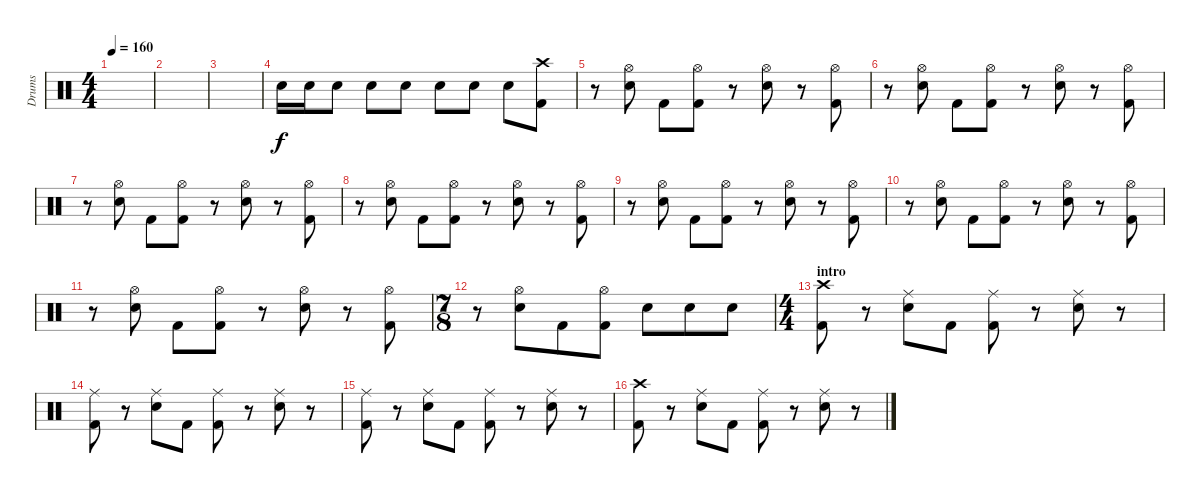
\track ("Drums" "Drums") {instrument percussion}
\staff {score}
\articulation defaults
\ts (4 4)
\tempo 160
\clef neutral
\ks c
|
|
|
"Snare (hit) 2".16 "Snare (hit) 2".16 "Snare (hit) 2".8 "Snare (hit) 2".8 "Snare (hit) 2".8 "Snare (hit) 2".8 "Snare (hit) 2".8 "Snare (hit) 2".8 ("Kick (hit) 2" "Crash high (hit)").8 |
r.8 ("Snare (hit) 2" "Hi-Hat (open)").8 "Kick (hit) 2".8 ("Kick (hit) 2" "Hi-Hat (open)").8 r.8 ("Snare (hit) 2" "Hi-Hat (open)").8 r.8 ("Kick (hit) 2" "Hi-Hat (open)").8 |
r.8 ("Snare (hit) 2" "Hi-Hat (open)").8 "Kick (hit) 2".8 ("Kick (hit) 2" "Hi-Hat (open)").8 r.8 ("Snare (hit) 2" "Hi-Hat (open)").8 r.8 ("Kick (hit) 2" "Hi-Hat (open)").8 |
r.8 ("Snare (hit) 2" "Hi-Hat (open)").8 "Kick (hit) 2".8 ("Kick (hit) 2" "Hi-Hat (open)").8 r.8 ("Snare (hit) 2" "Hi-Hat (open)").8 r.8 ("Kick (hit) 2" "Hi-Hat (open)").8 |
r.8 ("Snare (hit) 2" "Hi-Hat (open)").8 "Kick (hit) 2".8 ("Kick (hit) 2" "Hi-Hat (open)").8 r.8 ("Snare (hit) 2" "Hi-Hat (open)").8 r.8 ("Kick (hit) 2" "Hi-Hat (open)").8 |
r.8 ("Snare (hit) 2" "Hi-Hat (open)").8 "Kick (hit) 2".8 ("Kick (hit) 2" "Hi-Hat (open)").8 r.8 ("Snare (hit) 2" "Hi-Hat (open)").8 r.8 ("Kick (hit) 2" "Hi-Hat (open)").8 |
r.8 ("Snare (hit) 2" "Hi-Hat (open)").8 "Kick (hit) 2".8 ("Kick (hit) 2" "Hi-Hat (open)").8 r.8 ("Snare (hit) 2" "Hi-Hat (open)").8 r.8 ("Kick (hit) 2" "Hi-Hat (open)").8 |
r.8 ("Snare (hit) 2" "Hi-Hat (open)").8 "Kick (hit) 2".8 ("Kick (hit) 2" "Hi-Hat (open)").8 r.8 ("Snare (hit) 2" "Hi-Hat (open)").8 r.8 ("Kick (hit) 2" "Hi-Hat (open)").8 |
\ts (7 8)
r.8 ("Snare (hit) 2" "Hi-Hat (open)").8 "Kick (hit) 2".8 ("Kick (hit) 2" "Hi-Hat (open)").8 "Snare (hit) 2".8 "Snare (hit) 2".8 "Snare (hit) 2".8 |
\ts (4 4)
\section ("" "intro")
("Kick (hit) 2" "Crash high (hit)").8 r.8 ("Snare (hit) 2" "Ride (middle)").8 "Kick (hit) 2".8 ("Kick (hit) 2" "Ride (middle)").8 r.8 ("Snare (hit) 2" "Ride (middle)").8 r.8 |
("Kick (hit) 2" "Ride (middle)").8 r.8 ("Snare (hit) 2" "Ride (middle)").8 "Kick (hit) 2".8 ("Kick (hit) 2" "Ride (middle)").8 r.8 ("Snare (hit) 2" "Ride (middle)").8 r.8 |
("Kick (hit) 2" "Ride (middle)").8 r.8 ("Snare (hit) 2" "Ride (middle)").8 "Kick (hit) 2".8 ("Kick (hit) 2" "Ride (middle)").8 r.8 ("Snare (hit) 2" "Ride (middle)").8 r.8 |
("Kick (hit) 2" "Crash high (hit)").8 r.8 ("Snare (hit) 2" "Ride (middle)").8 "Kick (hit) 2".8 ("Kick (hit) 2" "Ride (middle)").8 r.8 ("Snare (hit) 2" "Ride (middle)").8 r.8
